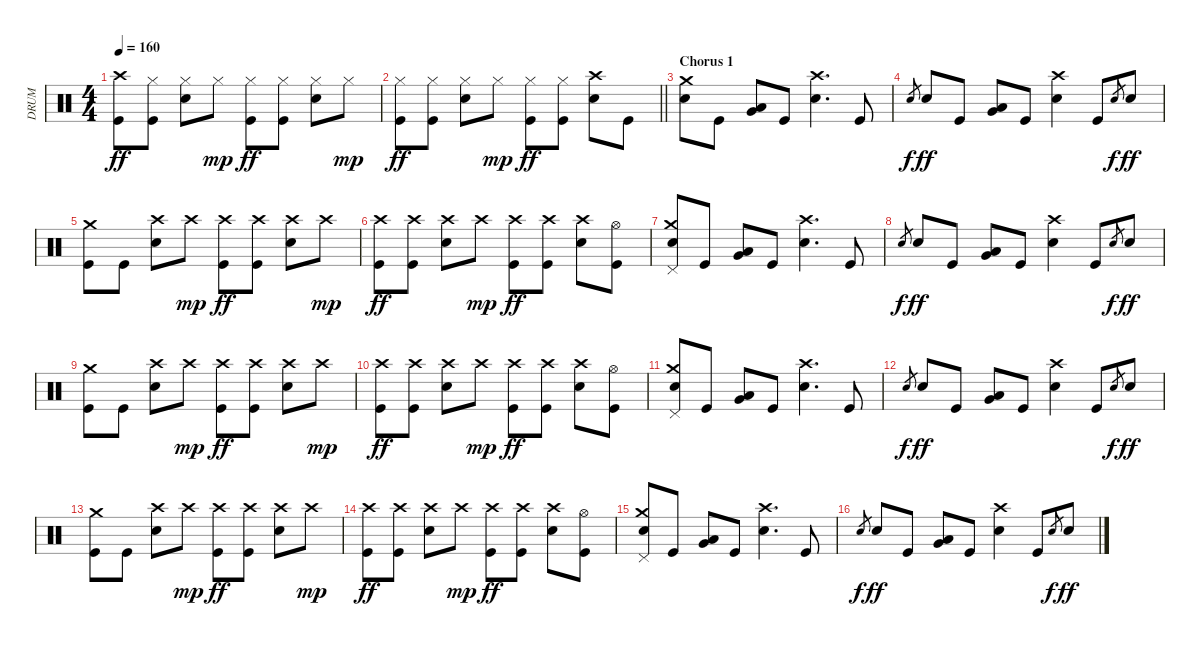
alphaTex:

\track ("DRUM" "DRUM") {instrument percussion}
\staff {score}
\articulation defaults
\ts (4 4)
\tempo 160
\clef neutral
\ks c
("Crash high (hit)" "Kick (hit)").8{dy ff} ("Hi-Hat (closed)" "Kick (hit)").8 ("Hi-Hat (closed)" "Electric Snare (hit)").8 "Hi-Hat (closed)".8{dy mp} ("Hi-Hat (closed)" "Kick (hit)").8{dy ff} ("Hi-Hat (closed)" "Kick (hit)").8 ("Hi-Hat (closed)" "Electric Snare (hit)").8 "Hi-Hat (closed)".8{dy mp} |
\barLineRight lightlight
("Hi-Hat (closed)" "Kick (hit)").8{dy ff} ("Hi-Hat (closed)" "Kick (hit)").8 ("Hi-Hat (closed)" "Electric Snare (hit)").8 "Hi-Hat (closed)".8{dy mp} ("Hi-Hat (closed)" "Kick (hit)").8{dy ff} ("Hi-Hat (closed)" "Kick (hit)").8 ("Crash high (hit)" "Electric Snare (hit)").8 "Kick (hit)".8 |
\section ("" "Chorus 1")
("Crash medium (hit)" "Electric Snare (hit)").8 "Kick (hit)".8 ("Very Low Tom (hit)" "Low Floor Tom (hit)").8 "Kick (hit)".8 ("Crash high (hit)" "Electric Snare (hit)").4{d} "Kick (hit)".8 |
"Electric Snare (hit)".8{gr dy f} "Electric Snare (hit)".8{dy ff} "Kick (hit)".8 ("Very Low Tom (hit)" "Low Floor Tom (hit)").8 "Kick (hit)".8 ("Crash high (hit)" "Electric Snare (hit)").4 "Kick (hit)".8 "Electric Snare (hit)".8{gr dy f} "Electric Snare (hit)".8{dy ff} |
("Crash medium (hit)" "Kick (hit)").8 "Kick (hit)".8 ("Crash high (hit)" "Electric Snare (hit)").8 "Crash high (hit)".8{dy mp} ("Crash high (hit)" "Kick (hit)").8{dy ff} ("Crash high (hit)" "Kick (hit)").8 ("Crash high (hit)" "Electric Snare (hit)").8 "Crash high (hit)".8{dy mp} |
("Crash high (hit)" "Kick (hit)").8{dy ff} ("Crash high (hit)" "Kick (hit)").8 ("Crash high (hit)" "Electric Snare (hit)").8 "Crash high (hit)".8{dy mp} ("Crash high (hit)" "Kick (hit)").8{dy ff} ("Crash high (hit)" "Kick (hit)").8 ("Crash high (hit)" "Electric Snare (hit)").8 ("Hi-Hat (open)" "Kick (hit)").8 |
("Crash medium (hit)" "Pedal Hi-Hat (hit)" "Electric Snare (hit)").8 "Kick (hit)".8 ("Very Low Tom (hit)" "Low Floor Tom (hit)").8 "Kick (hit)".8 ("Crash high (hit)" "Electric Snare (hit)").4{d} "Kick (hit)".8 |
"Electric Snare (hit)".8{gr dy f} "Electric Snare (hit)".8{dy ff} "Kick (hit)".8 ("Very Low Tom (hit)" "Low Floor Tom (hit)").8 "Kick (hit)".8 ("Crash high (hit)" "Electric Snare (hit)").4 "Kick (hit)".8 "Electric Snare (hit)".8{gr dy f} "Electric Snare (hit)".8{dy ff} |
("Crash medium (hit)" "Kick (hit)").8 "Kick (hit)".8 ("Crash high (hit)" "Electric Snare (hit)").8 "Crash high (hit)".8{dy mp} ("Crash high (hit)" "Kick (hit)").8{dy ff} ("Crash high (hit)" "Kick (hit)").8 ("Crash high (hit)" "Electric Snare (hit)").8 "Crash high (hit)".8{dy mp} |
("Crash high (hit)" "Kick (hit)").8{dy ff} ("Crash high (hit)" "Kick (hit)").8 ("Crash high (hit)" "Electric Snare (hit)").8 "Crash high (hit)".8{dy mp} ("Crash high (hit)" "Kick (hit)").8{dy ff} ("Crash high (hit)" "Kick (hit)").8 ("Crash high (hit)" "Electric Snare (hit)").8 ("Hi-Hat (open)" "Kick (hit)").8 |
("Crash medium (hit)" "Pedal Hi-Hat (hit)" "Electric Snare (hit)").8 "Kick (hit)".8 ("Very Low Tom (hit)" "Low Floor Tom (hit)").8 "Kick (hit)".8 ("Crash high (hit)" "Electric Snare (hit)").4{d} "Kick (hit)".8 |
"Electric Snare (hit)".8{gr dy f} "Electric Snare (hit)".8{dy ff} "Kick (hit)".8 ("Very Low Tom (hit)" "Low Floor Tom (hit)").8 "Kick (hit)".8 ("Crash high (hit)" "Electric Snare (hit)").4 "Kick (hit)".8 "Electric Snare (hit)".8{gr dy f} "Electric Snare (hit)".8{dy ff} |
("Crash medium (hit)" "Kick (hit)").8 "Kick (hit)".8 ("Crash high (hit)" "Electric Snare (hit)").8 "Crash high (hit)".8{dy mp} ("Crash high (hit)" "Kick (hit)").8{dy ff} ("Crash high (hit)" "Kick (hit)").8 ("Crash high (hit)" "Electric Snare (hit)").8 "Crash high (hit)".8{dy mp} |
("Crash high (hit)" "Kick (hit)").8{dy ff} ("Crash high (hit)" "Kick (hit)").8 ("Crash high (hit)" "Electric Snare (hit)").8 "Crash high (hit)".8{dy mp} ("Crash high (hit)" "Kick (hit)").8{dy ff} ("Crash high (hit)" "Kick (hit)").8 ("Crash high (hit)" "Electric Snare (hit)").8 ("Hi-Hat (open)" "Kick (hit)").8 |
("Crash medium (hit)" "Pedal Hi-Hat (hit)" "Electric Snare (hit)").8 "Kick (hit)".8 ("Very Low Tom (hit)" "Low Floor Tom (hit)").8 "Kick (hit)".8 ("Crash high (hit)" "Electric Snare (hit)").4{d} "Kick (hit)".8 |
"Electric Snare (hit)".8{gr dy f} "Electric Snare (hit)".8{dy ff} "Kick (hit)".8 ("Very Low Tom (hit)" "Low Floor Tom (hit)").8 "Kick (hit)".8 ("Crash high (hit)" "Electric Snare (hit)").4 "Kick (hit)".8 "Electric Snare (hit)".8{gr dy f} "Electric Snare (hit)".8{dy ff}
